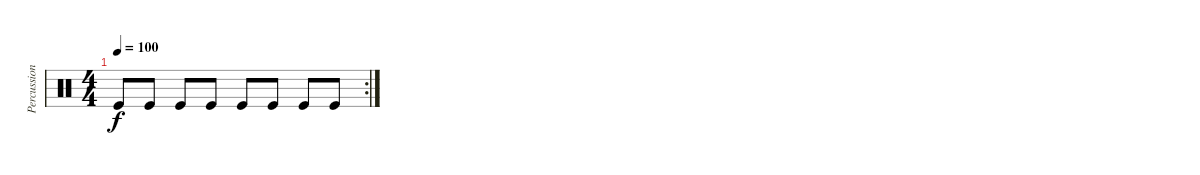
\track ("Percussions" "Percussion") {instrument percussion}
\staff {score}
\articulation defaults
\rc 2
\ts (4 4)
\tempo 100
\clef neutral
\ks c "Kick (hit)".8{dy f} "Kick (hit)".8 "Kick (hit)".8 "Kick (hit)".8 "Kick (hit)".8 "Kick (hit)".8 "Kick (hit)".8 "Kick (hit)".8
